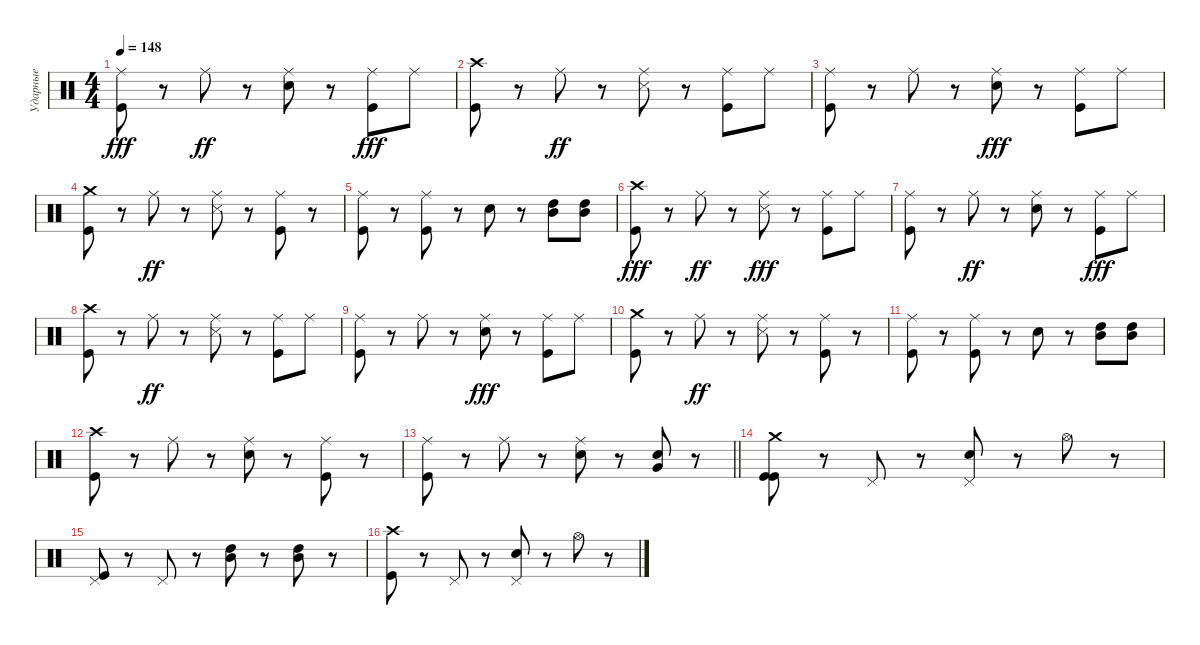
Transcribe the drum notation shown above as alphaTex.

\track ("Ударные" "Ударные") {instrument percussion}
\staff {score}
\articulation defaults
\ts (4 4)
\tempo 148
\clef neutral
\ks c
("Kick (hit)" "Ride (middle)").8{dy fff} r.8 "Ride (middle)".8{dy ff} r.8 ("Ride (middle)" "Snare (hit) 2").8 r.8 ("Kick (hit)" "Ride (middle)").8{dy fff} "Ride (middle)".8 |
("Kick (hit)" "Crash high (hit)").8 r.8 "Ride (middle)".8{dy ff} r.8 ("Ride (middle)" "Snare (side stick) 3").8 r.8 ("Kick (hit)" "Ride (middle)").8 "Ride (middle)".8 |
("Kick (hit)" "Ride (middle)").8 r.8 "Ride (middle)".8 r.8 ("Ride (middle)" "Snare (hit) 2").8{dy fff} r.8 ("Ride (middle)" "Kick (hit)").8 "Ride (middle)".8 |
("Crash medium (hit)" "Kick (hit)").8 r.8 "Ride (middle)".8{dy ff} r.8 ("Snare (side stick) 3" "Ride (middle)").8 r.8 ("Kick (hit)" "Ride (middle)").8 r.8 |
("Kick (hit)" "Ride (middle)").8 r.8 ("Kick (hit)" "Ride (middle)").8 r.8 "Snare (hit) 2".8 r.8 ("Mid Tom (hit)" "High Tom (hit)").8 ("Mid Tom (hit)" "High Tom (hit)").8 |
("Kick (hit)" "Crash high (hit)").8{dy fff} r.8 "Ride (middle)".8{dy ff} r.8 ("Snare (side stick) 3" "Ride (middle)").8{dy fff} r.8 ("Kick (hit)" "Ride (middle)").8 "Ride (middle)".8 |
("Kick (hit)" "Ride (middle)").8 r.8 "Ride (middle)".8{dy ff} r.8 ("Ride (middle)" "Snare (hit) 2").8 r.8 ("Kick (hit)" "Ride (middle)").8{dy fff} "Ride (middle)".8 |
("Kick (hit)" "Crash high (hit)").8 r.8 "Ride (middle)".8{dy ff} r.8 ("Ride (middle)" "Snare (side stick) 3").8 r.8 ("Kick (hit)" "Ride (middle)").8 "Ride (middle)".8 |
("Kick (hit)" "Ride (middle)").8 r.8 "Ride (middle)".8 r.8 ("Ride (middle)" "Snare (hit) 2").8{dy fff} r.8 ("Ride (middle)" "Kick (hit)").8 "Ride (middle)".8 |
("Crash medium (hit)" "Kick (hit)").8 r.8 "Ride (middle)".8{dy ff} r.8 ("Snare (side stick) 3" "Ride (middle)").8 r.8 ("Kick (hit)" "Ride (middle)").8 r.8 |
("Kick (hit)" "Ride (middle)").8 r.8 ("Kick (hit)" "Ride (middle)").8 r.8 "Snare (hit) 2".8 r.8 ("Mid Tom (hit)" "High Tom (hit)").8 ("Mid Tom (hit)" "High Tom (hit)").8 |
("Crash high (hit)" "Kick (hit)").8 r.8 "Ride (middle)".8 r.8 ("Snare (hit) 2" "Ride (middle)").8 r.8 ("Ride (middle)" "Kick (hit)").8 r.8 |
\barLineRight lightlight
("Ride (middle)" "Kick (hit)").8 r.8 "Ride (middle)".8 r.8 ("Ride (middle)" "Snare (hit) 2").8 r.8 ("Very Low Tom (hit)" "Snare (hit) 2").8 r.8 |
("Crash medium (hit)" "Kick (hit)" "Kick (hit)").8 r.8 "Pedal Hi-Hat (hit)".8 r.8 ("Pedal Hi-Hat (hit)" "Snare (hit) 2").8 r.8 "Hi-Hat (open)".8 r.8 |
("Pedal Hi-Hat (hit)" "Kick (hit)").8 r.8 "Pedal Hi-Hat (hit)".8 r.8 ("Mid Tom (hit)" "High Tom (hit)").8 r.8 ("High Tom (hit)" "Mid Tom (hit)").8 r.8 |
("Crash high (hit)" "Kick (hit)").8 r.8 "Pedal Hi-Hat (hit)".8 r.8 ("Pedal Hi-Hat (hit)" "Snare (hit) 2").8 r.8 "Hi-Hat (open)".8 r.8
